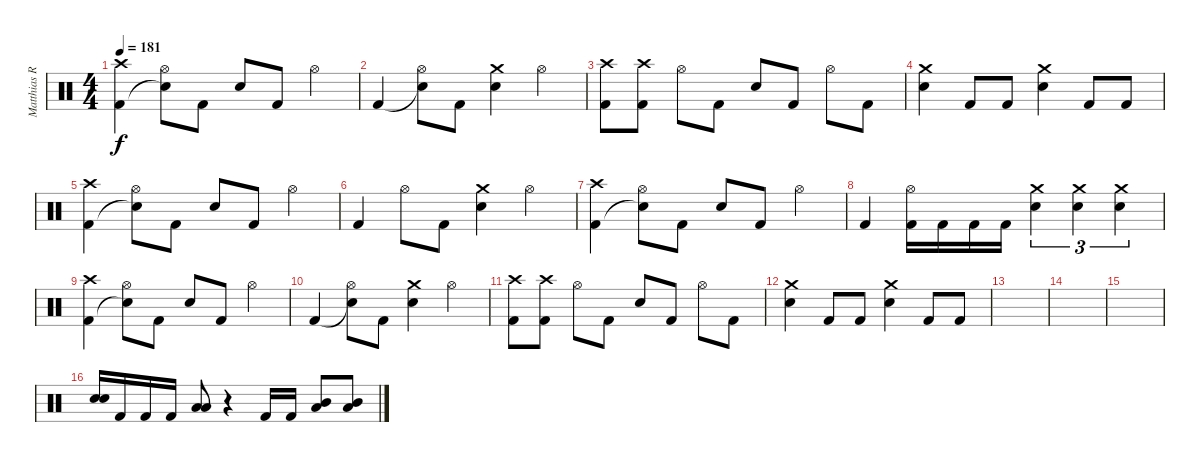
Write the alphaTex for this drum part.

\track ("Matthias R." "Matthias R") {instrument percussion}
\staff {score}
\articulation defaults
\ts (4 4)
\tempo 181
\clef neutral
\ks c
("Kick (hit) 2" "Crash high (hit)").4{dy f} ("Snare (hit)"{t} "Hi-Hat (open)").8 "Kick (hit) 2".8 "Snare (hit) 2".8 "Kick (hit) 2".8 "Hi-Hat (open)".4 |
"Kick (hit) 2".4 ("Snare (hit)"{t} "Hi-Hat (open)").8 "Kick (hit) 2".8 ("Snare (hit) 2" "Crash medium (hit)").4 "Hi-Hat (open)".4 |
("Kick (hit) 2" "Crash high (hit)").8 ("Kick (hit) 2" "Crash high (hit)").8 "Hi-Hat (open)".8 "Kick (hit) 2".8 "Snare (hit) 2".8 "Kick (hit) 2".8 "Hi-Hat (open)".8 "Kick (hit) 2".8 |
("Snare (hit) 2" "Crash medium (hit)").4 "Kick (hit) 2".8 "Kick (hit) 2".8 ("Snare (hit) 2" "Crash medium (hit)").4 "Kick (hit) 2".8 "Kick (hit) 2".8 |
("Kick (hit) 2" "Crash high (hit)").4 ("Snare (hit)"{t} "Hi-Hat (open)").8 "Kick (hit) 2".8 "Snare (hit) 2".8 "Kick (hit) 2".8 "Hi-Hat (open)".4 |
"Kick (hit) 2".4 "Hi-Hat (open)".8 "Kick (hit) 2".8 ("Snare (hit) 2" "Crash medium (hit)").4 "Hi-Hat (open)".4 |
("Kick (hit) 2" "Crash high (hit)").4 ("Snare (hit)"{t} "Hi-Hat (open)").8 "Kick (hit) 2".8 "Snare (hit) 2".8 "Kick (hit) 2".8 "Hi-Hat (open)".4 |
"Kick (hit) 2".4 ("Kick (hit) 2" "Hi-Hat (open)").16 "Kick (hit) 2".16 "Kick (hit) 2".16 "Kick (hit) 2".16 ("Snare (hit) 2" "Crash medium (hit)").4{tu (3 2)} ("Snare (hit) 2" "Crash medium (hit)").4{tu (3 2)} ("Snare (hit) 2" "Crash medium (hit)").4{tu (3 2)} |
("Kick (hit) 2" "Crash high (hit)").4 ("Snare (hit)"{t} "Hi-Hat (open)").8 "Kick (hit) 2".8 "Snare (hit) 2".8 "Kick (hit) 2".8 "Hi-Hat (open)".4 |
"Kick (hit) 2".4 ("Snare (hit)"{t} "Hi-Hat (open)").8 "Kick (hit) 2".8 ("Snare (hit) 2" "Crash medium (hit)").4 "Hi-Hat (open)".4 |
("Kick (hit) 2" "Crash high (hit)").8 ("Kick (hit) 2" "Crash high (hit)").8 "Hi-Hat (open)".8 "Kick (hit) 2".8 "Snare (hit) 2".8 "Kick (hit) 2".8 "Hi-Hat (open)".8 "Kick (hit) 2".8 |
("Snare (hit) 2" "Crash medium (hit)").4 "Kick (hit) 2".8 "Kick (hit) 2".8 ("Snare (hit) 2" "Crash medium (hit)").4 "Kick (hit) 2".8 "Kick (hit) 2".8 |
|
|
|
("Snare (hit) 2" "Snare (hit) 2").16 "Kick (hit) 2".16 "Kick (hit) 2".16 "Kick (hit) 2".16 ("Low Tom (hit)" "Low Tom (hit)").8 r.4 "Kick (hit) 2".16 "Kick (hit) 2".16 ("Mid Tom (hit)" "Low Tom (hit)").8 ("Mid Tom (hit)" "Low Tom (hit)").8
